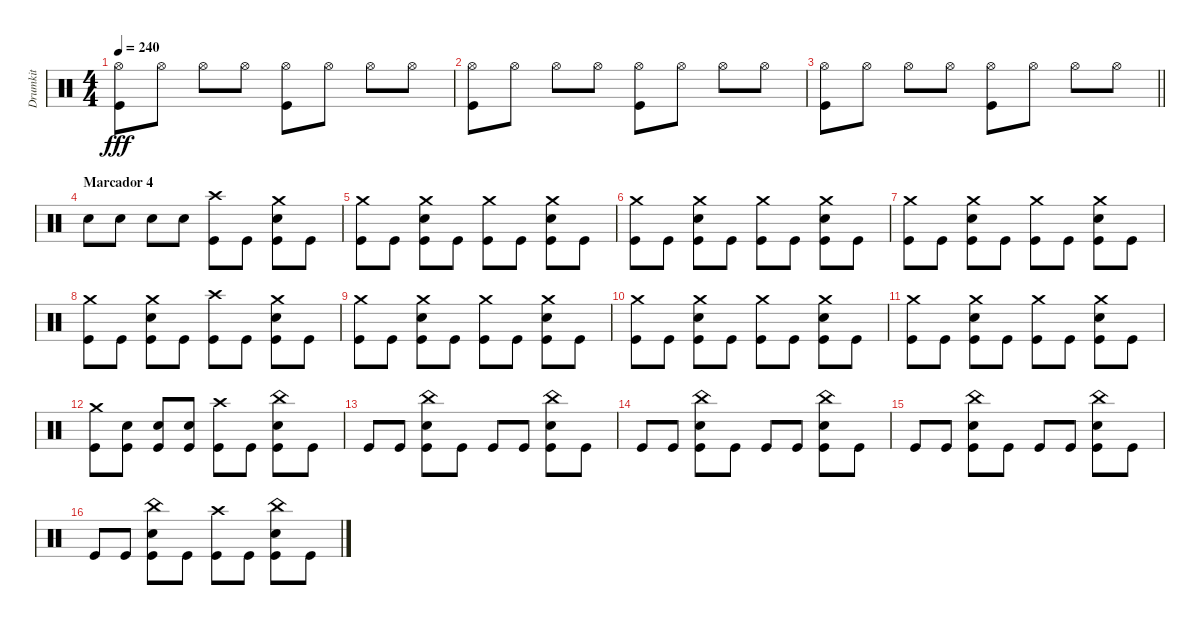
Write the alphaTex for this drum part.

\track ("Drumkit" "Drumkit") {instrument percussion}
\staff {score}
\articulation defaults
\ts (4 4)
\tempo 240
\clef neutral
\ks c
("Hi-Hat (open)" "Kick (hit)").8{dy fff} "Hi-Hat (open)".8 "Hi-Hat (open)".8 "Hi-Hat (open)".8 ("Hi-Hat (open)" "Kick (hit)").8 "Hi-Hat (open)".8 "Hi-Hat (open)".8 "Hi-Hat (open)".8 |
("Hi-Hat (open)" "Kick (hit)").8 "Hi-Hat (open)".8 "Hi-Hat (open)".8 "Hi-Hat (open)".8 ("Hi-Hat (open)" "Kick (hit)").8 "Hi-Hat (open)".8 "Hi-Hat (open)".8 "Hi-Hat (open)".8 |
\barLineRight lightlight
("Hi-Hat (open)" "Kick (hit)").8 "Hi-Hat (open)".8 "Hi-Hat (open)".8 "Hi-Hat (open)".8 ("Hi-Hat (open)" "Kick (hit)").8 "Hi-Hat (open)".8 "Hi-Hat (open)".8 "Hi-Hat (open)".8 |
\section ("" "Marcador 4")
"Snare (hit) 2".8 "Snare (hit) 2".8 "Snare (hit) 2".8 "Snare (hit) 2".8 ("Crash high (hit)" "Kick (hit)").8 "Kick (hit)".8 ("Crash medium (hit)" "Snare (hit) 2" "Kick (hit)").8 "Kick (hit)".8 |
("Crash medium (hit)" "Kick (hit)").8 "Kick (hit)".8 ("Crash medium (hit)" "Snare (hit) 2" "Kick (hit)").8 "Kick (hit)".8 ("Crash medium (hit)" "Kick (hit)").8 "Kick (hit)".8 ("Crash medium (hit)" "Snare (hit) 2" "Kick (hit)").8 "Kick (hit)".8 |
("Crash medium (hit)" "Kick (hit)").8 "Kick (hit)".8 ("Crash medium (hit)" "Snare (hit) 2" "Kick (hit)").8 "Kick (hit)".8 ("Crash medium (hit)" "Kick (hit)").8 "Kick (hit)".8 ("Crash medium (hit)" "Snare (hit) 2" "Kick (hit)").8 "Kick (hit)".8 |
("Crash medium (hit)" "Kick (hit)").8 "Kick (hit)".8 ("Crash medium (hit)" "Snare (hit) 2" "Kick (hit)").8 "Kick (hit)".8 ("Crash medium (hit)" "Kick (hit)").8 "Kick (hit)".8 ("Crash medium (hit)" "Snare (hit) 2" "Kick (hit)").8 "Kick (hit)".8 |
("Crash medium (hit)" "Kick (hit)").8 "Kick (hit)".8 ("Crash medium (hit)" "Snare (hit) 2" "Kick (hit)").8 "Kick (hit)".8 ("Crash high (hit)" "Kick (hit)").8 "Kick (hit)".8 ("Crash medium (hit)" "Snare (hit) 2" "Kick (hit)").8 "Kick (hit)".8 |
("Crash medium (hit)" "Kick (hit)").8 "Kick (hit)".8 ("Crash medium (hit)" "Snare (hit) 2" "Kick (hit)").8 "Kick (hit)".8 ("Crash medium (hit)" "Kick (hit)").8 "Kick (hit)".8 ("Crash medium (hit)" "Snare (hit) 2" "Kick (hit)").8 "Kick (hit)".8 |
("Crash medium (hit)" "Kick (hit)").8 "Kick (hit)".8 ("Crash medium (hit)" "Snare (hit) 2" "Kick (hit)").8 "Kick (hit)".8 ("Crash medium (hit)" "Kick (hit)").8 "Kick (hit)".8 ("Crash medium (hit)" "Snare (hit) 2" "Kick (hit)").8 "Kick (hit)".8 |
("Crash medium (hit)" "Kick (hit)").8 "Kick (hit)".8 ("Crash medium (hit)" "Snare (hit) 2" "Kick (hit)").8 "Kick (hit)".8 ("Crash medium (hit)" "Kick (hit)").8 "Kick (hit)".8 ("Crash medium (hit)" "Snare (hit) 2" "Kick (hit)").8 "Kick (hit)".8 |
("Crash medium (hit)" "Kick (hit)").8 ("Snare (hit) 2" "Kick (hit)").8 ("Snare (hit) 2" "Kick (hit)").8 ("Snare (hit) 2" "Kick (hit)").8 ("Crash high (hit)" "Kick (hit)").8 "Kick (hit)".8 ("China (hit)" "Snare (hit) 2" "Kick (hit)").8 "Kick (hit)".8 |
"Kick (hit)".8 "Kick (hit)".8 ("China (hit)" "Snare (hit) 2" "Kick (hit)").8 "Kick (hit)".8 "Kick (hit)".8 "Kick (hit)".8 ("China (hit)" "Snare (hit) 2" "Kick (hit)").8 "Kick (hit)".8 |
"Kick (hit)".8 "Kick (hit)".8 ("China (hit)" "Snare (hit) 2" "Kick (hit)").8 "Kick (hit)".8 "Kick (hit)".8 "Kick (hit)".8 ("China (hit)" "Snare (hit) 2" "Kick (hit)").8 "Kick (hit)".8 |
"Kick (hit)".8 "Kick (hit)".8 ("China (hit)" "Snare (hit) 2" "Kick (hit)").8 "Kick (hit)".8 "Kick (hit)".8 "Kick (hit)".8 ("China (hit)" "Snare (hit) 2" "Kick (hit)").8 "Kick (hit)".8 |
"Kick (hit)".8 "Kick (hit)".8 ("China (hit)" "Snare (hit) 2" "Kick (hit)").8 "Kick (hit)".8 ("Crash high (hit)" "Kick (hit)").8 "Kick (hit)".8 ("China (hit)" "Snare (hit) 2" "Kick (hit)").8 "Kick (hit)".8
